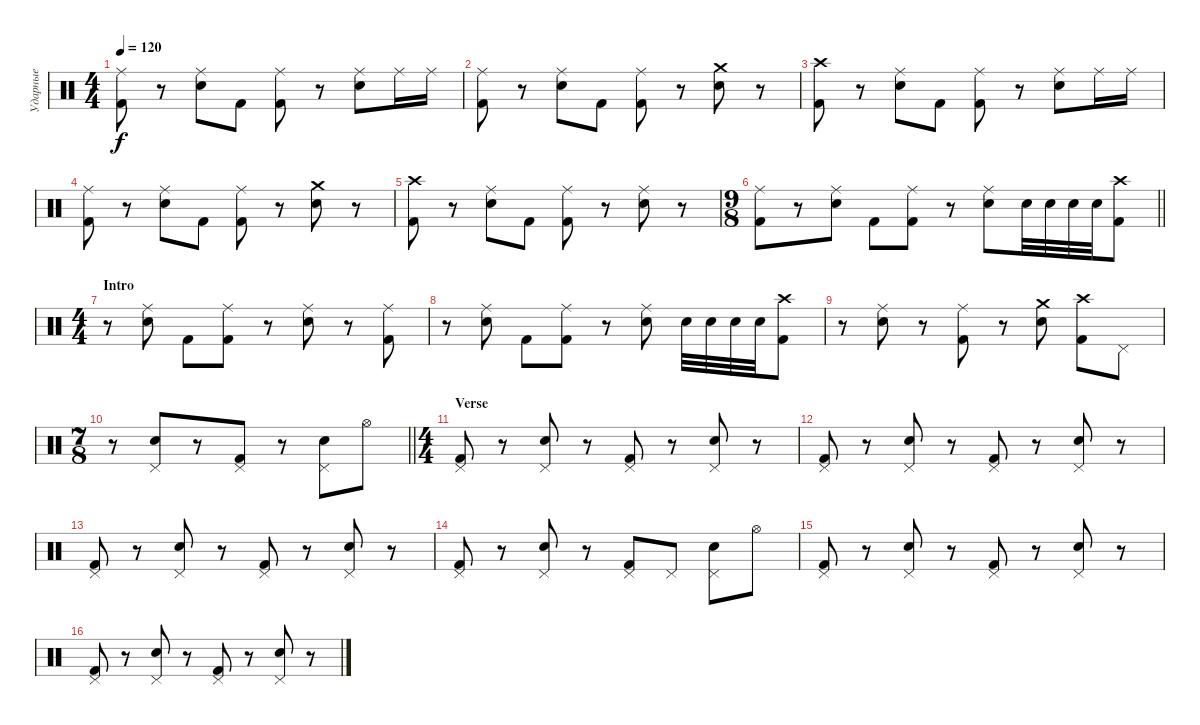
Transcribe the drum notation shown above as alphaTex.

\track ("Ударные" "Ударные") {instrument percussion}
\staff {score}
\articulation defaults
\ts (4 4)
\tempo 120
\clef neutral
\ks c
("Ride (middle)" "Kick (hit) 2").8{dy f} r.8 ("Ride (middle)" "Electric Snare (hit)").8 "Kick (hit) 2".8 ("Ride (middle)" "Kick (hit) 2").8 r.8 ("Ride (middle)" "Electric Snare (hit)").8 "Ride (middle)".16 "Ride (middle)".16 |
("Ride (middle)" "Kick (hit) 2").8 r.8 ("Ride (middle)" "Electric Snare (hit)").8 "Kick (hit) 2".8 ("Ride (middle)" "Kick (hit) 2").8 r.8 ("Crash medium (hit)" "Electric Snare (hit)").8 r.8 |
("Crash high (hit)" "Kick (hit) 2").8 r.8 ("Ride (middle)" "Electric Snare (hit)").8 "Kick (hit) 2".8 ("Ride (middle)" "Kick (hit) 2").8 r.8 ("Ride (middle)" "Electric Snare (hit)").8 "Ride (middle)".16 "Ride (middle)".16 |
("Ride (middle)" "Kick (hit) 2").8 r.8 ("Ride (middle)" "Electric Snare (hit)").8 "Kick (hit) 2".8 ("Ride (middle)" "Kick (hit) 2").8 r.8 ("Crash medium (hit)" "Electric Snare (hit)").8 r.8 |
("Crash high (hit)" "Kick (hit) 2").8 r.8 ("Ride (middle)" "Electric Snare (hit)").8 "Kick (hit) 2".8 ("Ride (middle)" "Kick (hit) 2").8 r.8 ("Ride (middle)" "Electric Snare (hit)").8 r.8 |
\ts (9 8)
\barLineRight lightlight
("Ride (middle)" "Kick (hit) 2").8 r.8 ("Ride (middle)" "Electric Snare (hit)").8 "Kick (hit) 2".8 ("Ride (middle)" "Kick (hit) 2").8 r.8 ("Ride (middle)" "Electric Snare (hit)").8 "Electric Snare (hit)".32 "Electric Snare (hit)".32 "Electric Snare (hit)".32 "Electric Snare (hit)".32 ("Crash high (hit)" "Kick (hit) 2").8 |
\ts (4 4)
\section ("" "Intro")
r.8 ("Ride (middle)" "Electric Snare (hit)").8 "Kick (hit) 2".8 ("Ride (middle)" "Kick (hit) 2").8 r.8 ("Ride (middle)" "Electric Snare (hit)").8 r.8 ("Ride (middle)" "Kick (hit) 2").8 |
r.8 ("Ride (middle)" "Electric Snare (hit)").8 "Kick (hit) 2".8 ("Ride (middle)" "Kick (hit) 2").8 r.8 ("Ride (middle)" "Electric Snare (hit)").8 "Electric Snare (hit)".32 "Electric Snare (hit)".32 "Electric Snare (hit)".32 "Electric Snare (hit)".32 ("Crash high (hit)" "Kick (hit) 2").8 |
r.8 ("Ride (middle)" "Electric Snare (hit)").8 r.8 ("Ride (middle)" "Kick (hit) 2").8 r.8 ("Crash medium (hit)" "Electric Snare (hit)").8 ("Crash high (hit)" "Kick (hit) 2").8 "Pedal Hi-Hat (hit)".8 |
\ts (7 8)
\barLineRight lightlight
r.8 ("Pedal Hi-Hat (hit)" "Electric Snare (hit)").8 r.8 ("Pedal Hi-Hat (hit)" "Kick (hit) 2").8 r.8 ("Pedal Hi-Hat (hit)" "Electric Snare (hit)").8 "Hi-Hat (open)".8 |
\ts (4 4)
\section ("" "Verse")
("Pedal Hi-Hat (hit)" "Kick (hit) 2").8 r.8 ("Pedal Hi-Hat (hit)" "Electric Snare (hit)").8 r.8 ("Pedal Hi-Hat (hit)" "Kick (hit) 2").8 r.8 ("Pedal Hi-Hat (hit)" "Electric Snare (hit)").8 r.8 |
("Pedal Hi-Hat (hit)" "Kick (hit) 2").8 r.8 ("Pedal Hi-Hat (hit)" "Electric Snare (hit)").8 r.8 ("Pedal Hi-Hat (hit)" "Kick (hit) 2").8 r.8 ("Pedal Hi-Hat (hit)" "Electric Snare (hit)").8 r.8 |
("Pedal Hi-Hat (hit)" "Kick (hit) 2").8 r.8 ("Pedal Hi-Hat (hit)" "Electric Snare (hit)").8 r.8 ("Pedal Hi-Hat (hit)" "Kick (hit) 2").8 r.8 ("Pedal Hi-Hat (hit)" "Electric Snare (hit)").8 r.8 |
("Pedal Hi-Hat (hit)" "Kick (hit) 2").8 r.8 ("Pedal Hi-Hat (hit)" "Electric Snare (hit)").8 r.8 ("Pedal Hi-Hat (hit)" "Kick (hit) 2").8 "Pedal Hi-Hat (hit)".8 ("Pedal Hi-Hat (hit)" "Electric Snare (hit)").8 "Hi-Hat (open)".8 |
("Pedal Hi-Hat (hit)" "Kick (hit) 2").8 r.8 ("Pedal Hi-Hat (hit)" "Electric Snare (hit)").8 r.8 ("Pedal Hi-Hat (hit)" "Kick (hit) 2").8 r.8 ("Pedal Hi-Hat (hit)" "Electric Snare (hit)").8 r.8 |
("Pedal Hi-Hat (hit)" "Kick (hit) 2").8 r.8 ("Pedal Hi-Hat (hit)" "Electric Snare (hit)").8 r.8 ("Pedal Hi-Hat (hit)" "Kick (hit) 2").8 r.8 ("Pedal Hi-Hat (hit)" "Electric Snare (hit)").8 r.8
